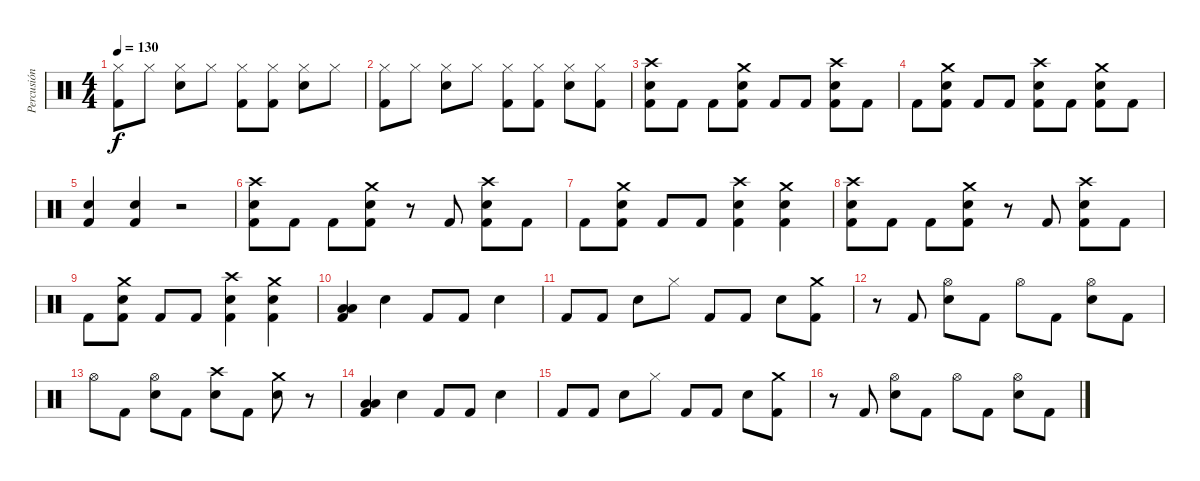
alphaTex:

\track ("Percusión" "Percusión") {instrument percussion}
\staff {score}
\articulation defaults
\ts (4 4)
\tempo 130
\clef neutral
\ks c
("Kick (hit) 2" "Hi-Hat (closed)").8{dy f} "Hi-Hat (closed)".8 ("Snare (hit) 2" "Hi-Hat (closed)").8 "Hi-Hat (closed)".8 ("Kick (hit) 2" "Hi-Hat (closed)").8 ("Kick (hit) 2" "Hi-Hat (closed)").8 ("Snare (hit) 2" "Hi-Hat (closed)").8 "Hi-Hat (closed)".8 |
("Kick (hit) 2" "Hi-Hat (closed)").8 "Hi-Hat (closed)".8 ("Snare (hit) 2" "Hi-Hat (closed)").8 "Hi-Hat (closed)".8 ("Kick (hit) 2" "Hi-Hat (closed)").8 ("Kick (hit) 2" "Hi-Hat (closed)").8 ("Snare (hit) 2" "Hi-Hat (closed)").8 ("Kick (hit) 2" "Hi-Hat (closed)").8 |
("Kick (hit) 2" "Snare (hit) 2" "Crash high (hit)").8 "Kick (hit) 2".8 "Kick (hit) 2".8 ("Kick (hit) 2" "Snare (hit) 2" "Crash medium (hit)").8 "Kick (hit) 2".8 "Kick (hit) 2".8 ("Kick (hit) 2" "Snare (hit) 2" "Crash high (hit)").8 "Kick (hit) 2".8 |
"Kick (hit) 2".8 ("Kick (hit) 2" "Snare (hit) 2" "Crash medium (hit)").8 "Kick (hit) 2".8 "Kick (hit) 2".8 ("Kick (hit) 2" "Snare (hit) 2" "Crash high (hit)").8 "Kick (hit) 2".8 ("Kick (hit) 2" "Snare (hit) 2" "Crash medium (hit)").8 "Kick (hit) 2".8 |
("Kick (hit) 2" "Snare (hit) 2").4 ("Kick (hit) 2" "Snare (hit) 2").4 r.2 |
("Kick (hit) 2" "Snare (hit) 2" "Crash high (hit)").8 "Kick (hit) 2".8 "Kick (hit) 2".8 ("Kick (hit) 2" "Snare (hit) 2" "Crash medium (hit)").8 r.8 "Kick (hit) 2".8 ("Kick (hit) 2" "Snare (hit) 2" "Crash high (hit)").8 "Kick (hit) 2".8 |
"Kick (hit) 2".8 ("Kick (hit) 2" "Snare (hit) 2" "Crash medium (hit)").8 "Kick (hit) 2".8 "Kick (hit) 2".8 ("Kick (hit) 2" "Snare (hit) 2" "Crash high (hit)").4 ("Kick (hit) 2" "Snare (hit) 2" "Crash medium (hit)").4 |
("Kick (hit) 2" "Snare (hit) 2" "Crash high (hit)").8 "Kick (hit) 2".8 "Kick (hit) 2".8 ("Kick (hit) 2" "Snare (hit) 2" "Crash medium (hit)").8 r.8 "Kick (hit) 2".8 ("Kick (hit) 2" "Snare (hit) 2" "Crash high (hit)").8 "Kick (hit) 2".8 |
"Kick (hit) 2".8 ("Kick (hit) 2" "Snare (hit) 2" "Crash medium (hit)").8 "Kick (hit) 2".8 "Kick (hit) 2".8 ("Kick (hit) 2" "Snare (hit) 2" "Crash high (hit)").4 ("Kick (hit) 2" "Snare (hit) 2" "Crash medium (hit)").4 |
("Low Tom (hit)" "Low Tom (hit)" "Kick (hit) 2").4 "Snare (hit) 2".4 "Kick (hit) 2".8 "Kick (hit) 2".8 "Snare (hit) 2".4 |
"Kick (hit) 2".8 "Kick (hit) 2".8 "Snare (hit) 2".8 "Hi-Hat (closed)".8 "Kick (hit) 2".8 "Kick (hit) 2".8 "Snare (hit) 2".8 ("Kick (hit) 2" "Crash medium (hit)").8 |
r.8 "Kick (hit) 2".8 ("Snare (hit) 2" "Hi-Hat (open)").8 "Kick (hit) 2".8 "Hi-Hat (open)".8 "Kick (hit) 2".8 ("Snare (hit) 2" "Hi-Hat (open)").8 "Kick (hit) 2".8 |
"Hi-Hat (open)".8 "Kick (hit) 2".8 ("Snare (hit) 2" "Hi-Hat (open)").8 "Kick (hit) 2".8 ("Snare (hit) 2" "Crash high (hit)").8 "Kick (hit) 2".8 ("Snare (hit) 2" "Crash medium (hit)").8 r.8 |
("Low Tom (hit)" "Low Tom (hit)" "Kick (hit) 2").4 "Snare (hit) 2".4 "Kick (hit) 2".8 "Kick (hit) 2".8 "Snare (hit) 2".4 |
"Kick (hit) 2".8 "Kick (hit) 2".8 "Snare (hit) 2".8 "Hi-Hat (closed)".8 "Kick (hit) 2".8 "Kick (hit) 2".8 "Snare (hit) 2".8 ("Kick (hit) 2" "Crash medium (hit)").8 |
r.8 "Kick (hit) 2".8 ("Snare (hit) 2" "Hi-Hat (open)").8 "Kick (hit) 2".8 "Hi-Hat (open)".8 "Kick (hit) 2".8 ("Snare (hit) 2" "Hi-Hat (open)").8 "Kick (hit) 2".8
